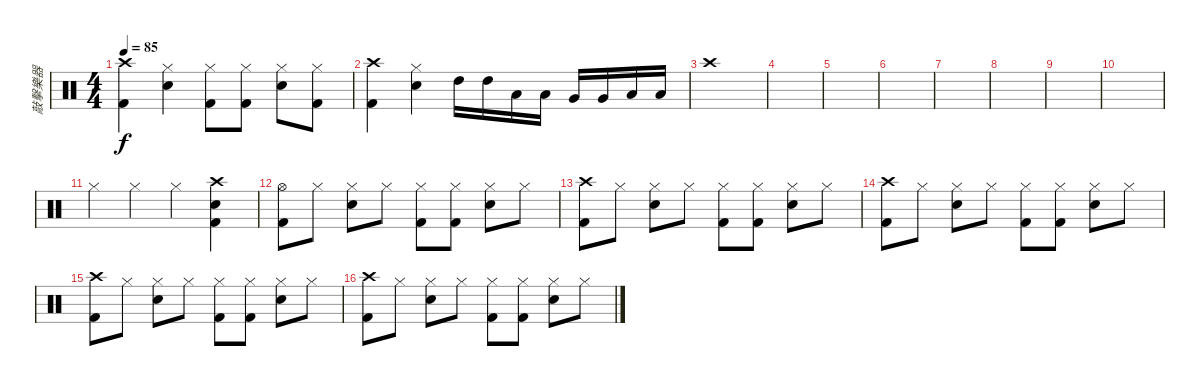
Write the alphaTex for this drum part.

\track ("敲擊樂器" "敲擊樂器") {instrument percussion}
\staff {score}
\articulation defaults
\ts (4 4)
\tempo 85
\clef neutral
\ks c
("Crash high (hit)" "Kick (hit) 2").4{dy f} ("Hi-Hat (closed)" "Snare (hit) 2").4 ("Hi-Hat (closed)" "Kick (hit) 2").8 ("Hi-Hat (closed)" "Kick (hit) 2").8 ("Hi-Hat (closed)" "Snare (hit) 2").8 ("Hi-Hat (closed)" "Kick (hit) 2").8 |
("Crash high (hit)" "Kick (hit) 2").4 ("Hi-Hat (closed)" "Snare (hit) 2").4 "High Tom (hit)".16 "High Tom (hit)".16 "Low Tom (hit)".16 "Low Tom (hit)".16 "Very Low Tom (hit)".16 "Very Low Tom (hit)".16 "Low Floor Tom (hit)".16 "Low Floor Tom (hit)".16 |
"Crash high (hit)".1 |
|
|
|
|
|
|
|
"Hi-Hat (closed)".4 "Hi-Hat (closed)".4 "Hi-Hat (closed)".4 ("Crash high (hit)" "Snare (hit) 2" "Kick (hit) 2").4 |
("Hi-Hat (open)" "Kick (hit) 2").8 "Hi-Hat (closed)".8 ("Hi-Hat (closed)" "Snare (hit) 2").8 "Hi-Hat (closed)".8 ("Hi-Hat (closed)" "Kick (hit) 2").8 ("Hi-Hat (closed)" "Kick (hit) 2").8 ("Hi-Hat (closed)" "Snare (hit) 2").8 "Hi-Hat (closed)".8 |
("Crash high (hit)" "Kick (hit) 2").8 "Hi-Hat (closed)".8 ("Hi-Hat (closed)" "Snare (hit) 2").8 "Hi-Hat (closed)".8 ("Hi-Hat (closed)" "Kick (hit) 2").8 ("Hi-Hat (closed)" "Kick (hit) 2").8 ("Hi-Hat (closed)" "Snare (hit) 2").8 "Hi-Hat (closed)".8 |
("Crash high (hit)" "Kick (hit) 2").8 "Hi-Hat (closed)".8 ("Hi-Hat (closed)" "Snare (hit) 2").8 "Hi-Hat (closed)".8 ("Hi-Hat (closed)" "Kick (hit) 2").8 ("Hi-Hat (closed)" "Kick (hit) 2").8 ("Hi-Hat (closed)" "Snare (hit) 2").8 "Hi-Hat (closed)".8 |
("Crash high (hit)" "Kick (hit) 2").8 "Hi-Hat (closed)".8 ("Hi-Hat (closed)" "Snare (hit) 2").8 "Hi-Hat (closed)".8 ("Hi-Hat (closed)" "Kick (hit) 2").8 ("Hi-Hat (closed)" "Kick (hit) 2").8 ("Hi-Hat (closed)" "Snare (hit) 2").8 "Hi-Hat (closed)".8 |
("Crash high (hit)" "Kick (hit) 2").8 "Hi-Hat (closed)".8 ("Hi-Hat (closed)" "Snare (hit) 2").8 "Hi-Hat (closed)".8 ("Hi-Hat (closed)" "Kick (hit) 2").8 ("Hi-Hat (closed)" "Kick (hit) 2").8 ("Hi-Hat (closed)" "Snare (hit) 2").8 "Hi-Hat (closed)".8
